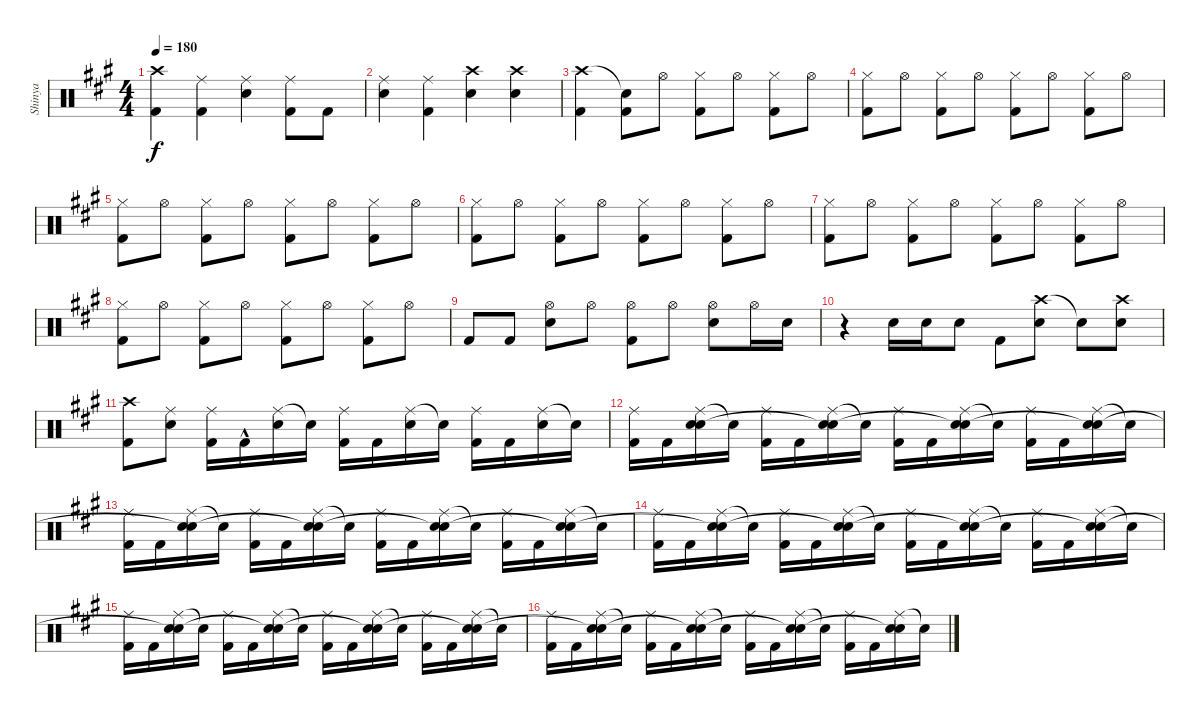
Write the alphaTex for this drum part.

\track ("Shinya" "Shinya") {instrument percussion}
\staff {score}
\articulation defaults
\ts (4 4)
\tempo 180
\clef neutral
\ks a
("Crash high (hit)" "Kick (hit) 2").4{dy f} ("Ride (middle)" "Kick (hit) 2").4 ("Ride (middle)" "Electric Snare (hit)").4 ("Ride (middle)" "Kick (hit) 2").8 "Kick (hit) 2".8 |
("Ride (middle)" "Electric Snare (hit)").4 ("Ride (middle)" "Kick (hit) 2").4 ("Crash high (hit)" "Electric Snare (hit)").4 ("Crash high (hit)" "Electric Snare (hit)").4 |
("Crash high (hit)" "Kick (hit) 2").4 ("Snare (hit)"{t} "Kick (hit) 2").8 "Hi-Hat (open)".8 ("Hi-Hat (closed)" "Kick (hit) 2").8 "Hi-Hat (open)".8 ("Hi-Hat (closed)" "Kick (hit) 2").8 "Hi-Hat (open)".8 |
("Hi-Hat (closed)" "Kick (hit) 2").8 "Hi-Hat (open)".8 ("Hi-Hat (closed)" "Kick (hit) 2").8 "Hi-Hat (open)".8 ("Hi-Hat (closed)" "Kick (hit) 2").8 "Hi-Hat (open)".8 ("Hi-Hat (closed)" "Kick (hit) 2").8 "Hi-Hat (open)".8 |
("Hi-Hat (closed)" "Kick (hit) 2").8 "Hi-Hat (open)".8 ("Hi-Hat (closed)" "Kick (hit) 2").8 "Hi-Hat (open)".8 ("Hi-Hat (closed)" "Kick (hit) 2").8 "Hi-Hat (open)".8 ("Hi-Hat (closed)" "Kick (hit) 2").8 "Hi-Hat (open)".8 |
("Hi-Hat (closed)" "Kick (hit) 2").8 "Hi-Hat (open)".8 ("Hi-Hat (closed)" "Kick (hit) 2").8 "Hi-Hat (open)".8 ("Hi-Hat (closed)" "Kick (hit) 2").8 "Hi-Hat (open)".8 ("Hi-Hat (closed)" "Kick (hit) 2").8 "Hi-Hat (open)".8 |
("Hi-Hat (closed)" "Kick (hit) 2").8 "Hi-Hat (open)".8 ("Hi-Hat (closed)" "Kick (hit) 2").8 "Hi-Hat (open)".8 ("Hi-Hat (closed)" "Kick (hit) 2").8 "Hi-Hat (open)".8 ("Hi-Hat (closed)" "Kick (hit) 2").8 "Hi-Hat (open)".8 |
("Hi-Hat (closed)" "Kick (hit) 2").8 "Hi-Hat (open)".8 ("Hi-Hat (closed)" "Kick (hit) 2").8 "Hi-Hat (open)".8 ("Hi-Hat (closed)" "Kick (hit) 2").8 "Hi-Hat (open)".8 ("Hi-Hat (closed)" "Kick (hit) 2").8 "Hi-Hat (open)".8 |
"Kick (hit) 2".8 "Kick (hit) 2".8 ("Hi-Hat (open)" "Electric Snare (hit)").8 "Hi-Hat (open)".8 ("Hi-Hat (open)" "Kick (hit) 2").8 "Hi-Hat (open)".8 ("Hi-Hat (open)" "Electric Snare (hit)").8 "Hi-Hat (open)".16 "Electric Snare (hit)".16 |
r.4 "Electric Snare (hit)".16 "Electric Snare (hit)".16 "Electric Snare (hit)".8 "Kick (hit) 2".8 ("Crash high (hit)" "Electric Snare (hit)").8 "Snare (hit)"{t}.8 ("Crash high (hit)" "Electric Snare (hit)").8 |
("Crash high (hit)" "Kick (hit) 2").8 ("Ride (middle)" "Electric Snare (hit)").8 ("Ride (middle)" "Kick (hit) 2").16 "Kick (hit) 2"{hac}.16 ("Ride (middle)" "Electric Snare (hit)").16 "Snare (hit)"{t}.16 ("Ride (middle)" "Kick (hit) 2").16 "Kick (hit) 2".16 ("Ride (middle)" "Electric Snare (hit)").16 "Snare (hit)"{t}.16 ("Ride (middle)" "Kick (hit) 2").16 "Kick (hit) 2".16 ("Ride (middle)" "Electric Snare (hit)").16 "Snare (hit)"{t}.16 |
("Ride (middle)" "Kick (hit) 2").16 "Kick (hit) 2".16 ("Ride (middle)" "Electric Snare (hit)" "Snare (hit)").16 "Snare (hit)"{t}.16 ("Ride (middle)" "Kick (hit) 2").16 "Kick (hit) 2".16 ("Ride (middle)" "Electric Snare (hit)" "Snare (hit)"{t}).16 "Snare (hit)"{t}.16 ("Ride (middle)" "Kick (hit) 2").16 "Kick (hit) 2".16 ("Ride (middle)" "Electric Snare (hit)" "Snare (hit)"{t}).16 "Snare (hit)"{t}.16 ("Ride (middle)" "Kick (hit) 2").16 "Kick (hit) 2".16 ("Ride (middle)" "Electric Snare (hit)" "Snare (hit)"{t}).16 "Snare (hit)"{t}.16 |
("Ride (middle)" "Kick (hit) 2").16 "Kick (hit) 2".16 ("Ride (middle)" "Electric Snare (hit)" "Snare (hit)"{t}).16 "Snare (hit)"{t}.16 ("Ride (middle)" "Kick (hit) 2").16 "Kick (hit) 2".16 ("Ride (middle)" "Electric Snare (hit)" "Snare (hit)"{t}).16 "Snare (hit)"{t}.16 ("Ride (middle)" "Kick (hit) 2").16 "Kick (hit) 2".16 ("Ride (middle)" "Electric Snare (hit)" "Snare (hit)"{t}).16 "Snare (hit)"{t}.16 ("Ride (middle)" "Kick (hit) 2").16 "Kick (hit) 2".16 ("Ride (middle)" "Electric Snare (hit)" "Snare (hit)"{t}).16 "Snare (hit)"{t}.16 |
("Ride (middle)" "Kick (hit) 2").16 "Kick (hit) 2".16 ("Ride (middle)" "Electric Snare (hit)" "Snare (hit)"{t}).16 "Snare (hit)"{t}.16 ("Ride (middle)" "Kick (hit) 2").16 "Kick (hit) 2".16 ("Ride (middle)" "Electric Snare (hit)" "Snare (hit)"{t}).16 "Snare (hit)"{t}.16 ("Ride (middle)" "Kick (hit) 2").16 "Kick (hit) 2".16 ("Ride (middle)" "Electric Snare (hit)" "Snare (hit)"{t}).16 "Snare (hit)"{t}.16 ("Ride (middle)" "Kick (hit) 2").16 "Kick (hit) 2".16 ("Ride (middle)" "Electric Snare (hit)" "Snare (hit)"{t}).16 "Snare (hit)"{t}.16 |
("Ride (middle)" "Kick (hit) 2").16 "Kick (hit) 2".16 ("Ride (middle)" "Electric Snare (hit)" "Snare (hit)"{t}).16 "Snare (hit)"{t}.16 ("Ride (middle)" "Kick (hit) 2").16 "Kick (hit) 2".16 ("Ride (middle)" "Electric Snare (hit)" "Snare (hit)"{t}).16 "Snare (hit)"{t}.16 ("Ride (middle)" "Kick (hit) 2").16 "Kick (hit) 2".16 ("Ride (middle)" "Electric Snare (hit)" "Snare (hit)"{t}).16 "Snare (hit)"{t}.16 ("Ride (middle)" "Kick (hit) 2").16 "Kick (hit) 2".16 ("Ride (middle)" "Electric Snare (hit)" "Snare (hit)"{t}).16 "Snare (hit)"{t}.16 |
("Ride (middle)" "Kick (hit) 2").16 "Kick (hit) 2".16 ("Ride (middle)" "Electric Snare (hit)" "Snare (hit)"{t}).16 "Snare (hit)"{t}.16 ("Ride (middle)" "Kick (hit) 2").16 "Kick (hit) 2".16 ("Ride (middle)" "Electric Snare (hit)" "Snare (hit)"{t}).16 "Snare (hit)"{t}.16 ("Ride (middle)" "Kick (hit) 2").16 "Kick (hit) 2".16 ("Ride (middle)" "Electric Snare (hit)" "Snare (hit)"{t}).16 "Snare (hit)"{t}.16 ("Ride (middle)" "Kick (hit) 2").16 "Kick (hit) 2".16 ("Ride (middle)" "Electric Snare (hit)" "Snare (hit)"{t}).16 "Snare (hit)"{t}.16
